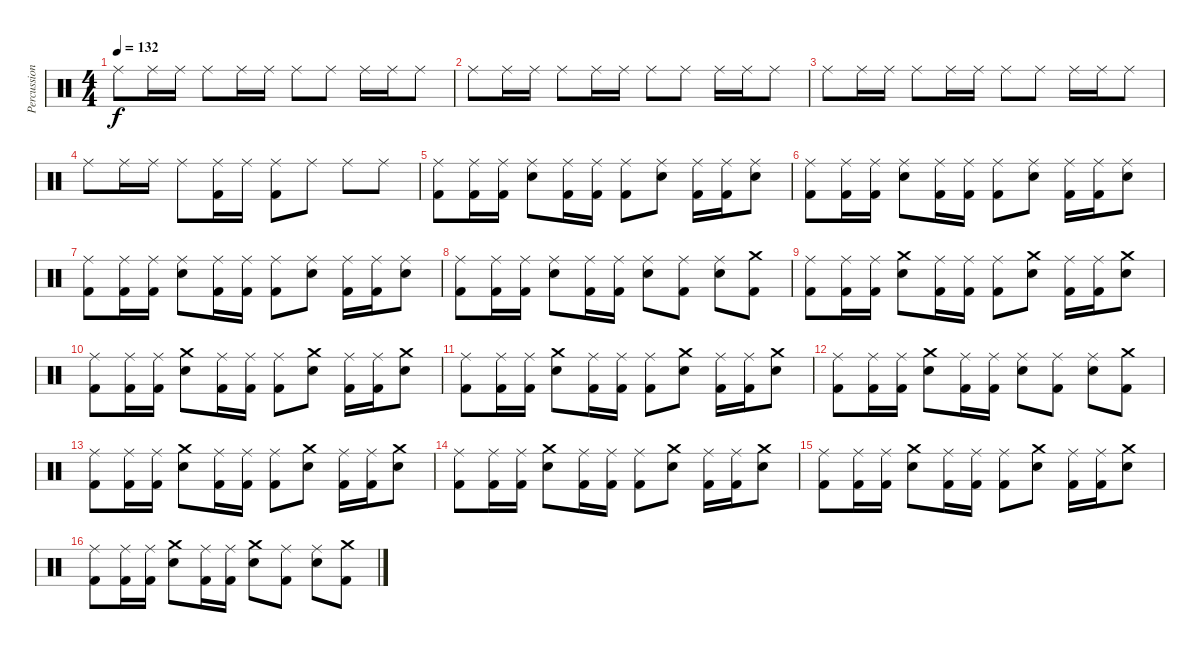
\track ("Percussion" "Percussion") {instrument percussion}
\staff {score}
\articulation defaults
\ts (4 4)
\tempo 132
\clef neutral
\ks c "Ride (middle)".8{dy f} "Ride (middle)".16 "Ride (middle)".16 "Ride (middle)".8 "Ride (middle)".16 "Ride (middle)".16 "Ride (middle)".8 "Ride (middle)".8 "Ride (middle)".16 "Ride (middle)".16 "Ride (middle)".8
|
"Ride (middle)".8 "Ride (middle)".16 "Ride (middle)".16 "Ride (middle)".8 "Ride (middle)".16 "Ride (middle)".16 "Ride (middle)".8 "Ride (middle)".8 "Ride (middle)".16 "Ride (middle)".16 "Ride (middle)".8 |
"Ride (middle)".8 "Ride (middle)".16 "Ride (middle)".16 "Ride (middle)".8 "Ride (middle)".16 "Ride (middle)".16 "Ride (middle)".8 "Ride (middle)".8 "Ride (middle)".16 "Ride (middle)".16 "Ride (middle)".8 |
"Ride (middle)".8 "Ride (middle)".16 "Ride (middle)".16 "Ride (middle)".8 ("Ride (middle)" "Kick (hit) 2").16 "Ride (middle)".16 ("Ride (middle)" "Kick (hit) 2").8 "Ride (middle)".8 "Ride (middle)".8 "Ride (middle)".8 |
("Ride (middle)" "Kick (hit) 2").8 ("Ride (middle)" "Kick (hit) 2").16 ("Ride (middle)" "Kick (hit) 2").16 ("Ride (middle)" "Electric Snare (hit)").8 ("Ride (middle)" "Kick (hit) 2").16 ("Ride (middle)" "Kick (hit) 2").16 ("Ride (middle)" "Kick (hit) 2").8 ("Ride (middle)" "Electric Snare (hit)").8 ("Ride (middle)" "Kick (hit) 2").16 ("Ride (middle)" "Kick (hit) 2").16 ("Ride (middle)" "Electric Snare (hit)").8 |
("Ride (middle)" "Kick (hit) 2").8 ("Ride (middle)" "Kick (hit) 2").16 ("Ride (middle)" "Kick (hit) 2").16 ("Ride (middle)" "Electric Snare (hit)").8 ("Ride (middle)" "Kick (hit) 2").16 ("Ride (middle)" "Kick (hit) 2").16 ("Ride (middle)" "Kick (hit) 2").8 ("Ride (middle)" "Electric Snare (hit)").8 ("Ride (middle)" "Kick (hit) 2").16 ("Ride (middle)" "Kick (hit) 2").16 ("Ride (middle)" "Electric Snare (hit)").8 |
("Ride (middle)" "Kick (hit) 2").8 ("Ride (middle)" "Kick (hit) 2").16 ("Ride (middle)" "Kick (hit) 2").16 ("Ride (middle)" "Electric Snare (hit)").8 ("Ride (middle)" "Kick (hit) 2").16 ("Ride (middle)" "Kick (hit) 2").16 ("Ride (middle)" "Kick (hit) 2").8 ("Ride (middle)" "Electric Snare (hit)").8 ("Ride (middle)" "Kick (hit) 2").16 ("Ride (middle)" "Kick (hit) 2").16 ("Ride (middle)" "Electric Snare (hit)").8 |
("Ride (middle)" "Kick (hit) 2").8 ("Ride (middle)" "Kick (hit) 2").16 ("Ride (middle)" "Kick (hit) 2").16 ("Ride (middle)" "Electric Snare (hit)").8 ("Ride (middle)" "Kick (hit) 2").16 ("Ride (middle)" "Kick (hit) 2").16 ("Ride (middle)" "Electric Snare (hit)").8 ("Ride (middle)" "Kick (hit) 2").8 ("Ride (middle)" "Electric Snare (hit)").8 ("Crash medium (hit)" "Kick (hit) 2").8 |
("Ride (middle)" "Kick (hit) 2").8 ("Ride (middle)" "Kick (hit) 2").16 ("Ride (middle)" "Kick (hit) 2").16 ("Crash medium (hit)" "Electric Snare (hit)").8 ("Ride (middle)" "Kick (hit) 2").16 ("Ride (middle)" "Kick (hit) 2").16 ("Ride (middle)" "Kick (hit) 2").8 ("Crash medium (hit)" "Electric Snare (hit)").8 ("Ride (middle)" "Kick (hit) 2").16 ("Ride (middle)" "Kick (hit) 2").16 ("Crash medium (hit)" "Electric Snare (hit)").8 |
("Ride (middle)" "Kick (hit) 2").8 ("Ride (middle)" "Kick (hit) 2").16 ("Ride (middle)" "Kick (hit) 2").16 ("Crash medium (hit)" "Electric Snare (hit)").8 ("Ride (middle)" "Kick (hit) 2").16 ("Ride (middle)" "Kick (hit) 2").16 ("Ride (middle)" "Kick (hit) 2").8 ("Crash medium (hit)" "Electric Snare (hit)").8 ("Ride (middle)" "Kick (hit) 2").16 ("Ride (middle)" "Kick (hit) 2").16 ("Crash medium (hit)" "Electric Snare (hit)").8 |
("Ride (middle)" "Kick (hit) 2").8 ("Ride (middle)" "Kick (hit) 2").16 ("Ride (middle)" "Kick (hit) 2").16 ("Crash medium (hit)" "Electric Snare (hit)").8 ("Ride (middle)" "Kick (hit) 2").16 ("Ride (middle)" "Kick (hit) 2").16 ("Ride (middle)" "Kick (hit) 2").8 ("Crash medium (hit)" "Electric Snare (hit)").8 ("Ride (middle)" "Kick (hit) 2").16 ("Ride (middle)" "Kick (hit) 2").16 ("Crash medium (hit)" "Electric Snare (hit)").8 |
("Ride (middle)" "Kick (hit) 2").8 ("Ride (middle)" "Kick (hit) 2").16 ("Ride (middle)" "Kick (hit) 2").16 ("Crash medium (hit)" "Electric Snare (hit)").8 ("Ride (middle)" "Kick (hit) 2").16 ("Ride (middle)" "Kick (hit) 2").16 ("Ride (middle)" "Electric Snare (hit)").8 ("Ride (middle)" "Kick (hit) 2").8 ("Ride (middle)" "Electric Snare (hit)").8 ("Crash medium (hit)" "Kick (hit) 2").8 |
("Ride (middle)" "Kick (hit) 2").8 ("Ride (middle)" "Kick (hit) 2").16 ("Ride (middle)" "Kick (hit) 2").16 ("Crash medium (hit)" "Electric Snare (hit)").8 ("Ride (middle)" "Kick (hit) 2").16 ("Ride (middle)" "Kick (hit) 2").16 ("Ride (middle)" "Kick (hit) 2").8 ("Crash medium (hit)" "Electric Snare (hit)").8 ("Ride (middle)" "Kick (hit) 2").16 ("Ride (middle)" "Kick (hit) 2").16 ("Crash medium (hit)" "Electric Snare (hit)").8 |
("Ride (middle)" "Kick (hit) 2").8 ("Ride (middle)" "Kick (hit) 2").16 ("Ride (middle)" "Kick (hit) 2").16 ("Crash medium (hit)" "Electric Snare (hit)").8 ("Ride (middle)" "Kick (hit) 2").16 ("Ride (middle)" "Kick (hit) 2").16 ("Ride (middle)" "Kick (hit) 2").8 ("Crash medium (hit)" "Electric Snare (hit)").8 ("Ride (middle)" "Kick (hit) 2").16 ("Ride (middle)" "Kick (hit) 2").16 ("Crash medium (hit)" "Electric Snare (hit)").8 |
("Ride (middle)" "Kick (hit) 2").8 ("Ride (middle)" "Kick (hit) 2").16 ("Ride (middle)" "Kick (hit) 2").16 ("Crash medium (hit)" "Electric Snare (hit)").8 ("Ride (middle)" "Kick (hit) 2").16 ("Ride (middle)" "Kick (hit) 2").16 ("Ride (middle)" "Kick (hit) 2").8 ("Crash medium (hit)" "Electric Snare (hit)").8 ("Ride (middle)" "Kick (hit) 2").16 ("Ride (middle)" "Kick (hit) 2").16 ("Crash medium (hit)" "Electric Snare (hit)").8 |
("Ride (middle)" "Kick (hit) 2").8 ("Ride (middle)" "Kick (hit) 2").16 ("Ride (middle)" "Kick (hit) 2").16 ("Crash medium (hit)" "Electric Snare (hit)").8 ("Ride (middle)" "Kick (hit) 2").16 ("Ride (middle)" "Kick (hit) 2").16 ("Crash medium (hit)" "Electric Snare (hit)").8 ("Ride (middle)" "Kick (hit) 2").8 ("Ride (middle)" "Electric Snare (hit)").8 ("Crash medium (hit)" "Kick (hit) 2").8
